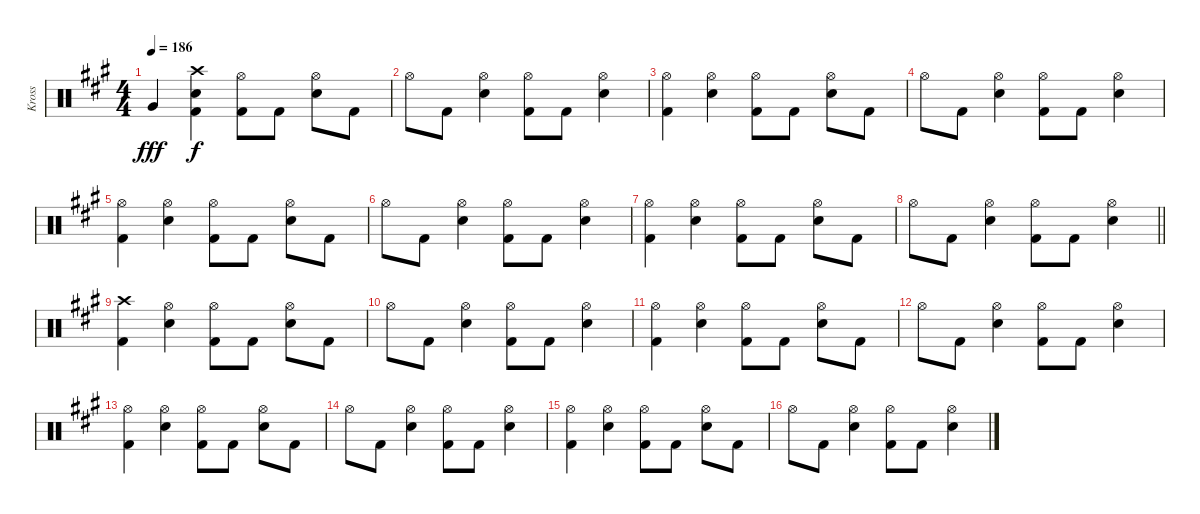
\track ("Kross" "Kross") {instrument percussion}
\staff {score}
\articulation defaults
\ts (4 4)
\tempo 186
\clef neutral
\ks a "Very Low Tom (hit)".4{dy fff}
("Crash high (hit)" "Electric Snare (hit)" "Kick (hit) 2").4{dy f} ("Hi-Hat (open)" "Kick (hit) 2").8 "Kick (hit) 2".8 ("Hi-Hat (open)" "Electric Snare (hit)").8 "Kick (hit) 2".8 |
"Hi-Hat (open)".8 "Kick (hit) 2".8 ("Hi-Hat (open)" "Electric Snare (hit)").4 ("Hi-Hat (open)" "Kick (hit) 2").8 "Kick (hit) 2".8 ("Hi-Hat (open)" "Electric Snare (hit)").4 |
("Hi-Hat (open)" "Kick (hit) 2").4 ("Hi-Hat (open)" "Electric Snare (hit)").4 ("Hi-Hat (open)" "Kick (hit) 2").8 "Kick (hit) 2".8 ("Hi-Hat (open)" "Electric Snare (hit)").8 "Kick (hit) 2".8 |
"Hi-Hat (open)".8 "Kick (hit) 2".8 ("Hi-Hat (open)" "Electric Snare (hit)").4 ("Hi-Hat (open)" "Kick (hit) 2").8 "Kick (hit) 2".8 ("Hi-Hat (open)" "Electric Snare (hit)").4 |
("Hi-Hat (open)" "Kick (hit) 2").4 ("Hi-Hat (open)" "Electric Snare (hit)").4 ("Hi-Hat (open)" "Kick (hit) 2").8 "Kick (hit) 2".8 ("Hi-Hat (open)" "Electric Snare (hit)").8 "Kick (hit) 2".8 |
"Hi-Hat (open)".8 "Kick (hit) 2".8 ("Hi-Hat (open)" "Electric Snare (hit)").4 ("Hi-Hat (open)" "Kick (hit) 2").8 "Kick (hit) 2".8 ("Hi-Hat (open)" "Electric Snare (hit)").4 |
("Hi-Hat (open)" "Kick (hit) 2").4 ("Hi-Hat (open)" "Electric Snare (hit)").4 ("Hi-Hat (open)" "Kick (hit) 2").8 "Kick (hit) 2".8 ("Hi-Hat (open)" "Electric Snare (hit)").8 "Kick (hit) 2".8 |
\barLineRight lightlight "Hi-Hat (open)".8 "Kick (hit) 2".8
("Hi-Hat (open)" "Electric Snare (hit)").4 ("Hi-Hat (open)" "Kick (hit) 2").8 "Kick (hit) 2".8 ("Hi-Hat (open)" "Electric Snare (hit)").4 |
("Crash high (hit)" "Kick (hit) 2").4 ("Hi-Hat (open)" "Electric Snare (hit)").4 ("Hi-Hat (open)" "Kick (hit) 2").8 "Kick (hit) 2".8 ("Hi-Hat (open)" "Electric Snare (hit)").8 "Kick (hit) 2".8 |
"Hi-Hat (open)".8 "Kick (hit) 2".8 ("Hi-Hat (open)" "Electric Snare (hit)").4 ("Hi-Hat (open)" "Kick (hit) 2").8 "Kick (hit) 2".8 ("Hi-Hat (open)" "Electric Snare (hit)").4 |
("Hi-Hat (open)" "Kick (hit) 2").4 ("Hi-Hat (open)" "Electric Snare (hit)").4 ("Hi-Hat (open)" "Kick (hit) 2").8 "Kick (hit) 2".8 ("Hi-Hat (open)" "Electric Snare (hit)").8 "Kick (hit) 2".8 |
"Hi-Hat (open)".8 "Kick (hit) 2".8 ("Hi-Hat (open)" "Electric Snare (hit)").4 ("Hi-Hat (open)" "Kick (hit) 2").8 "Kick (hit) 2".8 ("Hi-Hat (open)" "Electric Snare (hit)").4 |
("Hi-Hat (open)" "Kick (hit) 2").4 ("Hi-Hat (open)" "Electric Snare (hit)").4 ("Hi-Hat (open)" "Kick (hit) 2").8 "Kick (hit) 2".8 ("Hi-Hat (open)" "Electric Snare (hit)").8 "Kick (hit) 2".8 |
"Hi-Hat (open)".8 "Kick (hit) 2".8 ("Hi-Hat (open)" "Electric Snare (hit)").4 ("Hi-Hat (open)" "Kick (hit) 2").8 "Kick (hit) 2".8 ("Hi-Hat (open)" "Electric Snare (hit)").4 |
("Hi-Hat (open)" "Kick (hit) 2").4 ("Hi-Hat (open)" "Electric Snare (hit)").4 ("Hi-Hat (open)" "Kick (hit) 2").8 "Kick (hit) 2".8 ("Hi-Hat (open)" "Electric Snare (hit)").8 "Kick (hit) 2".8 |
"Hi-Hat (open)".8 "Kick (hit) 2".8 ("Hi-Hat (open)" "Electric Snare (hit)").4 ("Hi-Hat (open)" "Kick (hit) 2").8 "Kick (hit) 2".8 ("Hi-Hat (open)" "Electric Snare (hit)").4
